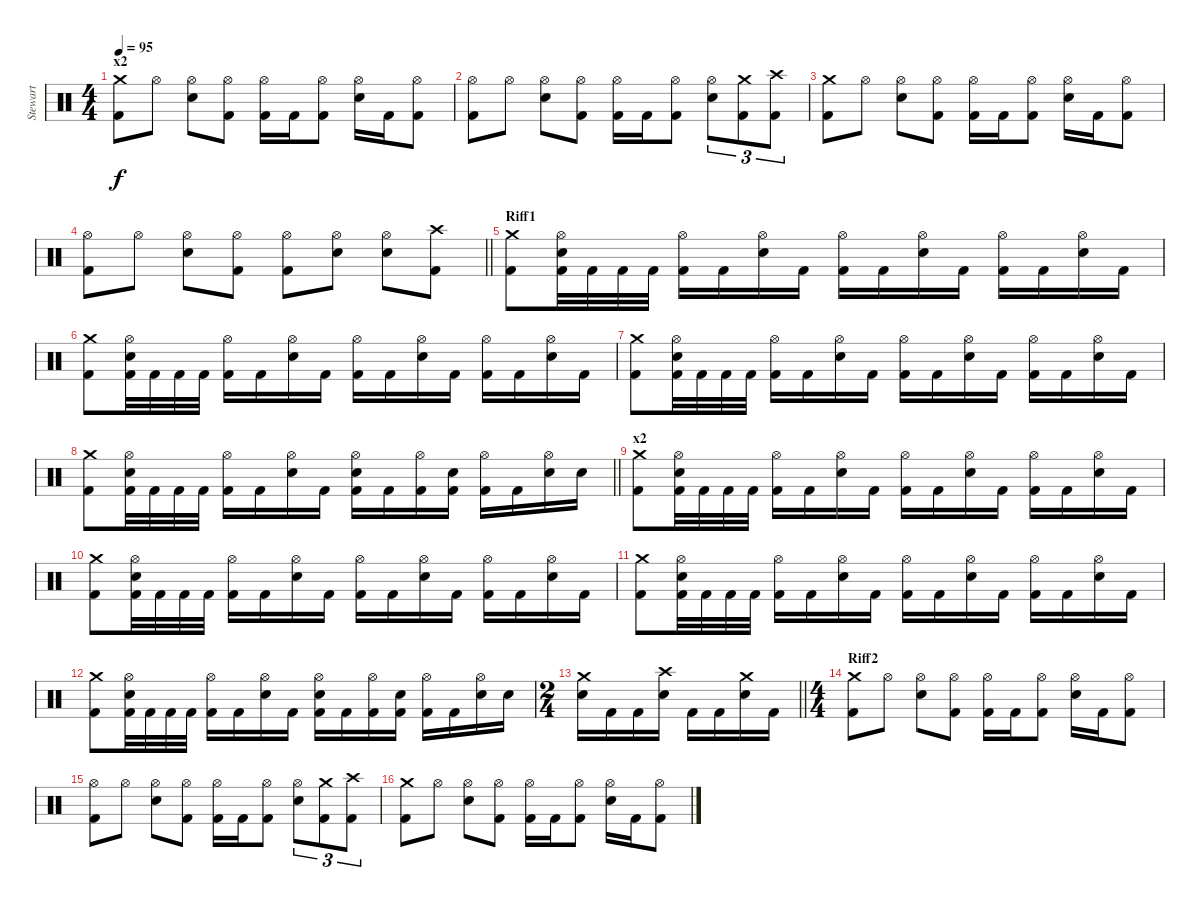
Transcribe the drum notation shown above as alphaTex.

\track ("Stewart" "Stewart") {instrument percussion}
\staff {score}
\articulation defaults
\ts (4 4)
\section ("" "x2")
\tempo 95
\clef neutral
\ks c
("Crash medium (hit)" "Kick (hit) 2").8{dy f} "Hi-Hat (open)".8 ("Hi-Hat (open)" "Electric Snare (hit)").8 ("Hi-Hat (open)" "Kick (hit) 2").8 ("Hi-Hat (open)" "Kick (hit) 2").16 "Kick (hit) 2".16 ("Hi-Hat (open)" "Kick (hit) 2").8 ("Hi-Hat (open)" "Electric Snare (hit)").16 "Kick (hit) 2".16 ("Hi-Hat (open)" "Kick (hit) 2").8 |
("Hi-Hat (open)" "Kick (hit) 2").8 "Hi-Hat (open)".8 ("Hi-Hat (open)" "Electric Snare (hit)").8 ("Hi-Hat (open)" "Kick (hit) 2").8 ("Hi-Hat (open)" "Kick (hit) 2").16 "Kick (hit) 2".16 ("Hi-Hat (open)" "Kick (hit) 2").8 ("Hi-Hat (open)" "Electric Snare (hit)").8{tu (3 2)} ("Crash medium (hit)" "Kick (hit) 2").8{tu (3 2)} ("Crash high (hit)" "Kick (hit) 2").8{tu (3 2)} |
("Crash medium (hit)" "Kick (hit) 2").8 "Hi-Hat (open)".8 ("Hi-Hat (open)" "Electric Snare (hit)").8 ("Hi-Hat (open)" "Kick (hit) 2").8 ("Hi-Hat (open)" "Kick (hit) 2").16 "Kick (hit) 2".16 ("Hi-Hat (open)" "Kick (hit) 2").8 ("Hi-Hat (open)" "Electric Snare (hit)").16 "Kick (hit) 2".16 ("Hi-Hat (open)" "Kick (hit) 2").8 |
\barLineRight lightlight
("Hi-Hat (open)" "Kick (hit) 2").8 "Hi-Hat (open)".8 ("Hi-Hat (open)" "Electric Snare (hit)").8 ("Hi-Hat (open)" "Kick (hit) 2").8 ("Hi-Hat (open)" "Kick (hit) 2").8 ("Hi-Hat (open)" "Electric Snare (hit)").8 ("Hi-Hat (open)" "Electric Snare (hit)").8 ("Crash high (hit)" "Kick (hit) 2").8 |
\section ("" "Riff1")
("Crash medium (hit)" "Kick (hit) 2").8 ("Hi-Hat (open)" "Electric Snare (hit)" "Kick (hit) 2").32 "Kick (hit) 2".32 "Kick (hit) 2".32 "Kick (hit) 2".32 ("Hi-Hat (open)" "Kick (hit) 2").16 "Kick (hit) 2".16 ("Hi-Hat (open)" "Electric Snare (hit)").16 "Kick (hit) 2".16 ("Hi-Hat (open)" "Kick (hit) 2").16 "Kick (hit) 2".16 ("Hi-Hat (open)" "Electric Snare (hit)").16 "Kick (hit) 2".16 ("Hi-Hat (open)" "Kick (hit) 2").16 "Kick (hit) 2".16 ("Hi-Hat (open)" "Electric Snare (hit)").16 "Kick (hit) 2".16 |
("Crash medium (hit)" "Kick (hit) 2").8 ("Hi-Hat (open)" "Electric Snare (hit)" "Kick (hit) 2").32 "Kick (hit) 2".32 "Kick (hit) 2".32 "Kick (hit) 2".32 ("Hi-Hat (open)" "Kick (hit) 2").16 "Kick (hit) 2".16 ("Hi-Hat (open)" "Electric Snare (hit)").16 "Kick (hit) 2".16 ("Hi-Hat (open)" "Kick (hit) 2").16 "Kick (hit) 2".16 ("Hi-Hat (open)" "Electric Snare (hit)").16 "Kick (hit) 2".16 ("Hi-Hat (open)" "Kick (hit) 2").16 "Kick (hit) 2".16 ("Hi-Hat (open)" "Electric Snare (hit)").16 "Kick (hit) 2".16 |
("Crash medium (hit)" "Kick (hit) 2").8 ("Hi-Hat (open)" "Electric Snare (hit)" "Kick (hit) 2").32 "Kick (hit) 2".32 "Kick (hit) 2".32 "Kick (hit) 2".32 ("Hi-Hat (open)" "Kick (hit) 2").16 "Kick (hit) 2".16 ("Hi-Hat (open)" "Electric Snare (hit)").16 "Kick (hit) 2".16 ("Hi-Hat (open)" "Kick (hit) 2").16 "Kick (hit) 2".16 ("Hi-Hat (open)" "Electric Snare (hit)").16 "Kick (hit) 2".16 ("Hi-Hat (open)" "Kick (hit) 2").16 "Kick (hit) 2".16 ("Hi-Hat (open)" "Electric Snare (hit)").16 "Kick (hit) 2".16 |
\barLineRight lightlight
("Crash medium (hit)" "Kick (hit) 2").8 ("Hi-Hat (open)" "Electric Snare (hit)" "Kick (hit) 2").32 "Kick (hit) 2".32 "Kick (hit) 2".32 "Kick (hit) 2".32 ("Hi-Hat (open)" "Kick (hit) 2").16 "Kick (hit) 2".16 ("Hi-Hat (open)" "Electric Snare (hit)").16 "Kick (hit) 2".16 ("Hi-Hat (open)" "Electric Snare (hit)" "Kick (hit) 2").16 "Kick (hit) 2".16 ("Hi-Hat (open)" "Kick (hit) 2").16 ("Electric Snare (hit)" "Kick (hit) 2").16 ("Hi-Hat (open)" "Kick (hit) 2").16 "Kick (hit) 2".16 ("Hi-Hat (open)" "Electric Snare (hit)").16 "Electric Snare (hit)".16 |
\section ("" "x2")
("Crash medium (hit)" "Kick (hit) 2").8 ("Hi-Hat (open)" "Electric Snare (hit)" "Kick (hit) 2").32 "Kick (hit) 2".32 "Kick (hit) 2".32 "Kick (hit) 2".32 ("Hi-Hat (open)" "Kick (hit) 2").16 "Kick (hit) 2".16 ("Hi-Hat (open)" "Electric Snare (hit)").16 "Kick (hit) 2".16 ("Hi-Hat (open)" "Kick (hit) 2").16 "Kick (hit) 2".16 ("Hi-Hat (open)" "Electric Snare (hit)").16 "Kick (hit) 2".16 ("Hi-Hat (open)" "Kick (hit) 2").16 "Kick (hit) 2".16 ("Hi-Hat (open)" "Electric Snare (hit)").16 "Kick (hit) 2".16 |
("Crash medium (hit)" "Kick (hit) 2").8 ("Hi-Hat (open)" "Electric Snare (hit)" "Kick (hit) 2").32 "Kick (hit) 2".32 "Kick (hit) 2".32 "Kick (hit) 2".32 ("Hi-Hat (open)" "Kick (hit) 2").16 "Kick (hit) 2".16 ("Hi-Hat (open)" "Electric Snare (hit)").16 "Kick (hit) 2".16 ("Hi-Hat (open)" "Kick (hit) 2").16 "Kick (hit) 2".16 ("Hi-Hat (open)" "Electric Snare (hit)").16 "Kick (hit) 2".16 ("Hi-Hat (open)" "Kick (hit) 2").16 "Kick (hit) 2".16 ("Hi-Hat (open)" "Electric Snare (hit)").16 "Kick (hit) 2".16 |
("Crash medium (hit)" "Kick (hit) 2").8 ("Hi-Hat (open)" "Electric Snare (hit)" "Kick (hit) 2").32 "Kick (hit) 2".32 "Kick (hit) 2".32 "Kick (hit) 2".32 ("Hi-Hat (open)" "Kick (hit) 2").16 "Kick (hit) 2".16 ("Hi-Hat (open)" "Electric Snare (hit)").16 "Kick (hit) 2".16 ("Hi-Hat (open)" "Kick (hit) 2").16 "Kick (hit) 2".16 ("Hi-Hat (open)" "Electric Snare (hit)").16 "Kick (hit) 2".16 ("Hi-Hat (open)" "Kick (hit) 2").16 "Kick (hit) 2".16 ("Hi-Hat (open)" "Electric Snare (hit)").16 "Kick (hit) 2".16 |
("Crash medium (hit)" "Kick (hit) 2").8 ("Hi-Hat (open)" "Electric Snare (hit)" "Kick (hit) 2").32 "Kick (hit) 2".32 "Kick (hit) 2".32 "Kick (hit) 2".32 ("Hi-Hat (open)" "Kick (hit) 2").16 "Kick (hit) 2".16 ("Hi-Hat (open)" "Electric Snare (hit)").16 "Kick (hit) 2".16 ("Hi-Hat (open)" "Electric Snare (hit)" "Kick (hit) 2").16 "Kick (hit) 2".16 ("Hi-Hat (open)" "Kick (hit) 2").16 ("Electric Snare (hit)" "Kick (hit) 2").16 ("Hi-Hat (open)" "Kick (hit) 2").16 "Kick (hit) 2".16 ("Hi-Hat (open)" "Electric Snare (hit)").16 "Electric Snare (hit)".16 |
\ts (2 4)
\barLineRight lightlight
("Crash medium (hit)" "Electric Snare (hit)").16 "Kick (hit) 2".16 "Kick (hit) 2".16 ("Crash high (hit)" "Electric Snare (hit)").16 "Kick (hit) 2".16 "Kick (hit) 2".16 ("Crash medium (hit)" "Electric Snare (hit)").16 "Kick (hit) 2".16 |
\ts (4 4)
\section ("" "Riff2")
("Crash medium (hit)" "Kick (hit) 2").8 "Hi-Hat (open)".8 ("Hi-Hat (open)" "Electric Snare (hit)").8 ("Hi-Hat (open)" "Kick (hit) 2").8 ("Hi-Hat (open)" "Kick (hit) 2").16 "Kick (hit) 2".16 ("Hi-Hat (open)" "Kick (hit) 2").8 ("Hi-Hat (open)" "Electric Snare (hit)").16 "Kick (hit) 2".16 ("Hi-Hat (open)" "Kick (hit) 2").8 |
("Hi-Hat (open)" "Kick (hit) 2").8 "Hi-Hat (open)".8 ("Hi-Hat (open)" "Electric Snare (hit)").8 ("Hi-Hat (open)" "Kick (hit) 2").8 ("Hi-Hat (open)" "Kick (hit) 2").16 "Kick (hit) 2".16 ("Hi-Hat (open)" "Kick (hit) 2").8 ("Hi-Hat (open)" "Electric Snare (hit)").8{tu (3 2)} ("Crash medium (hit)" "Kick (hit) 2").8{tu (3 2)} ("Crash high (hit)" "Kick (hit) 2").8{tu (3 2)} |
("Crash medium (hit)" "Kick (hit) 2").8 "Hi-Hat (open)".8 ("Hi-Hat (open)" "Electric Snare (hit)").8 ("Hi-Hat (open)" "Kick (hit) 2").8 ("Hi-Hat (open)" "Kick (hit) 2").16 "Kick (hit) 2".16 ("Hi-Hat (open)" "Kick (hit) 2").8 ("Hi-Hat (open)" "Electric Snare (hit)").16 "Kick (hit) 2".16 ("Hi-Hat (open)" "Kick (hit) 2").8
